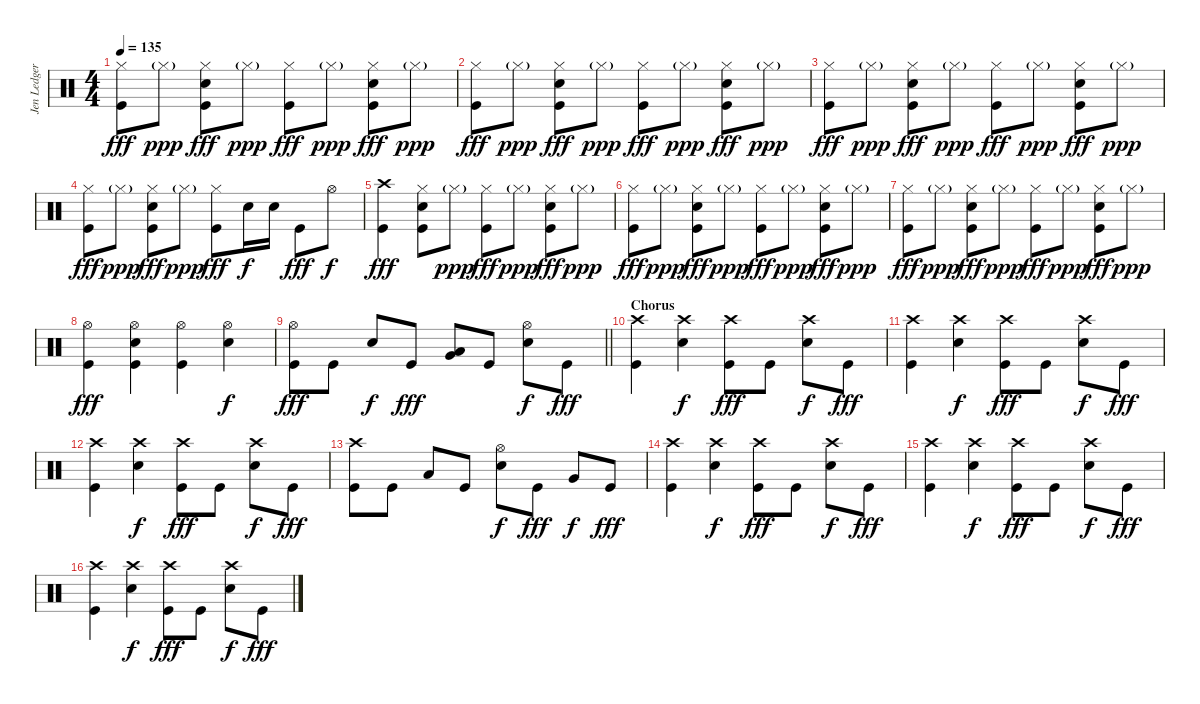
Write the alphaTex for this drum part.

\track ("Jen Ledger" "Jen Ledger") {instrument percussion}
\staff {score}
\articulation defaults
\ts (4 4)
\tempo 135
\clef neutral
\ks c
("Hi-Hat (closed)" "Kick (hit)").8{dy fff} "Hi-Hat (closed)"{g}.8{dy ppp} ("Hi-Hat (closed)" "Snare (hit) 2" "Kick (hit)").8{dy fff} "Hi-Hat (closed)"{g}.8{dy ppp} ("Hi-Hat (closed)" "Kick (hit)").8{dy fff} "Hi-Hat (closed)"{g}.8{dy ppp} ("Hi-Hat (closed)" "Snare (hit) 2" "Kick (hit)").8{dy fff} "Hi-Hat (closed)"{g}.8{dy ppp} |
("Hi-Hat (closed)" "Kick (hit)").8{dy fff} "Hi-Hat (closed)"{g}.8{dy ppp} ("Hi-Hat (closed)" "Snare (hit) 2" "Kick (hit)").8{dy fff} "Hi-Hat (closed)"{g}.8{dy ppp} ("Hi-Hat (closed)" "Kick (hit)").8{dy fff} "Hi-Hat (closed)"{g}.8{dy ppp} ("Hi-Hat (closed)" "Snare (hit) 2" "Kick (hit)").8{dy fff} "Hi-Hat (closed)"{g}.8{dy ppp} |
("Hi-Hat (closed)" "Kick (hit)").8{dy fff} "Hi-Hat (closed)"{g}.8{dy ppp} ("Hi-Hat (closed)" "Snare (hit) 2" "Kick (hit)").8{dy fff} "Hi-Hat (closed)"{g}.8{dy ppp} ("Hi-Hat (closed)" "Kick (hit)").8{dy fff} "Hi-Hat (closed)"{g}.8{dy ppp} ("Hi-Hat (closed)" "Snare (hit) 2" "Kick (hit)").8{dy fff} "Hi-Hat (closed)"{g}.8{dy ppp} |
("Hi-Hat (closed)" "Kick (hit)").8{dy fff} "Hi-Hat (closed)"{g}.8{dy ppp} ("Hi-Hat (closed)" "Snare (hit) 2" "Kick (hit)").8{dy fff} "Hi-Hat (closed)"{g}.8{dy ppp} ("Hi-Hat (closed)" "Kick (hit)").8{dy fff} "Snare (hit) 2".16{dy f} "Snare (hit) 2".16 "Kick (hit)".8{dy fff} "Hi-Hat (open)".8{dy f} |
("Crash high (hit)" "Kick (hit)").4{dy fff} ("Hi-Hat (closed)" "Snare (hit) 2" "Kick (hit)").8 "Hi-Hat (closed)"{g}.8{dy ppp} ("Hi-Hat (closed)" "Kick (hit)").8{dy fff} "Hi-Hat (closed)"{g}.8{dy ppp} ("Hi-Hat (closed)" "Snare (hit) 2" "Kick (hit)").8{dy fff} "Hi-Hat (closed)"{g}.8{dy ppp} |
("Hi-Hat (closed)" "Kick (hit)").8{dy fff} "Hi-Hat (closed)"{g}.8{dy ppp} ("Hi-Hat (closed)" "Snare (hit) 2" "Kick (hit)").8{dy fff} "Hi-Hat (closed)"{g}.8{dy ppp} ("Hi-Hat (closed)" "Kick (hit)").8{dy fff} "Hi-Hat (closed)"{g}.8{dy ppp} ("Hi-Hat (closed)" "Snare (hit) 2" "Kick (hit)").8{dy fff} "Hi-Hat (closed)"{g}.8{dy ppp} |
("Hi-Hat (closed)" "Kick (hit)").8{dy fff} "Hi-Hat (closed)"{g}.8{dy ppp} ("Hi-Hat (closed)" "Snare (hit) 2" "Kick (hit)").8{dy fff} "Hi-Hat (closed)"{g}.8{dy ppp} ("Hi-Hat (closed)" "Kick (hit)").8{dy fff} "Hi-Hat (closed)"{g}.8{dy ppp} ("Hi-Hat (closed)" "Snare (hit) 2" "Kick (hit)").8{dy fff} "Hi-Hat (closed)"{g}.8{dy ppp} |
("Hi-Hat (open)" "Kick (hit)").4{dy fff} ("Hi-Hat (open)" "Snare (hit) 2" "Kick (hit)").4 ("Hi-Hat (open)" "Kick (hit)").4 ("Hi-Hat (open)" "Snare (hit) 2").4{dy f} |
\barLineRight lightlight
("Hi-Hat (open)" "Kick (hit)").8{dy fff} "Kick (hit)".8 "Snare (hit) 2".8{dy f} "Kick (hit)".8{dy fff} ("Low Tom (hit)" "Very Low Tom (hit)").8 "Kick (hit)".8 ("Hi-Hat (open)" "Snare (hit) 2").8{dy f} "Kick (hit)".8{dy fff} |
\section ("" "Chorus")
("Crash high (hit)" "Kick (hit)").4 ("Crash high (hit)" "Snare (hit) 2").4{dy f} ("Crash high (hit)" "Kick (hit)").8{dy fff} "Kick (hit)".8 ("Crash high (hit)" "Snare (hit) 2").8{dy f} "Kick (hit)".8{dy fff} |
("Crash high (hit)" "Kick (hit)").4 ("Crash high (hit)" "Snare (hit) 2").4{dy f} ("Crash high (hit)" "Kick (hit)").8{dy fff} "Kick (hit)".8 ("Crash high (hit)" "Snare (hit) 2").8{dy f} "Kick (hit)".8{dy fff} |
("Crash high (hit)" "Kick (hit)").4 ("Crash high (hit)" "Snare (hit) 2").4{dy f} ("Crash high (hit)" "Kick (hit)").8{dy fff} "Kick (hit)".8 ("Crash high (hit)" "Snare (hit) 2").8{dy f} "Kick (hit)".8{dy fff} |
("Crash high (hit)" "Kick (hit)").8 "Kick (hit)".8 "Low Tom (hit)".8 "Kick (hit)".8 ("Hi-Hat (open)" "Snare (hit) 2").8{dy f} "Kick (hit)".8{dy fff} "Very Low Tom (hit)".8{dy f} "Kick (hit)".8{dy fff} |
("Crash high (hit)" "Kick (hit)").4 ("Crash high (hit)" "Snare (hit) 2").4{dy f} ("Crash high (hit)" "Kick (hit)").8{dy fff} "Kick (hit)".8 ("Crash high (hit)" "Snare (hit) 2").8{dy f} "Kick (hit)".8{dy fff} |
("Crash high (hit)" "Kick (hit)").4 ("Crash high (hit)" "Snare (hit) 2").4{dy f} ("Crash high (hit)" "Kick (hit)").8{dy fff} "Kick (hit)".8 ("Crash high (hit)" "Snare (hit) 2").8{dy f} "Kick (hit)".8{dy fff} |
("Crash high (hit)" "Kick (hit)").4 ("Crash high (hit)" "Snare (hit) 2").4{dy f} ("Crash high (hit)" "Kick (hit)").8{dy fff} "Kick (hit)".8 ("Crash high (hit)" "Snare (hit) 2").8{dy f} "Kick (hit)".8{dy fff}
